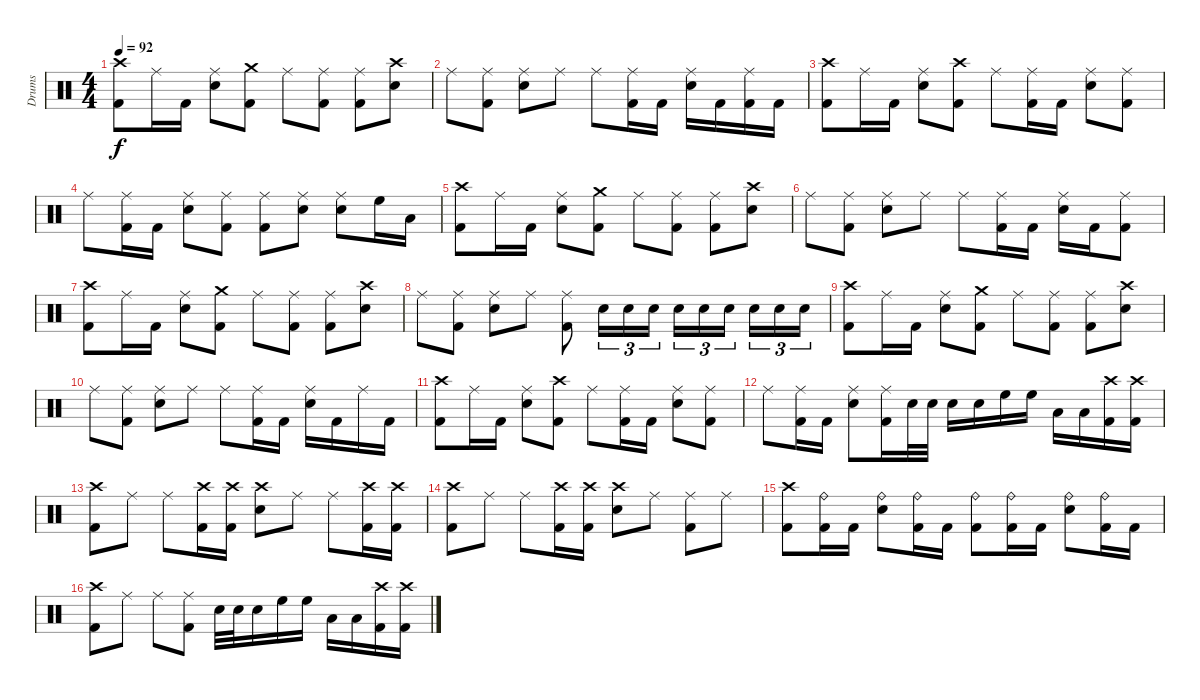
\track ("Drums" "Drums") {instrument percussion}
\staff {score}
\articulation defaults
\ts (4 4)
\tempo 92
\clef neutral
\ks c
("Crash high (hit)" "Kick (hit) 2").8{dy f} "Ride (middle)".16 "Kick (hit) 2".16 ("Ride (middle)" "Snare (hit) 2").8 ("Crash medium (hit)" "Kick (hit) 2").8 "Ride (middle)".8 ("Ride (middle)" "Kick (hit) 2").8 ("Ride (middle)" "Kick (hit) 2").8 ("Crash high (hit)" "Snare (hit) 2").8 |
"Ride (middle)".8 ("Ride (middle)" "Kick (hit) 2").8 ("Ride (middle)" "Snare (hit) 2").8 "Ride (middle)".8 "Ride (middle)".8 ("Ride (middle)" "Kick (hit) 2").16 "Kick (hit) 2".16 ("Ride (middle)" "Snare (hit) 2").16 "Kick (hit) 2".16 ("Ride (middle)" "Kick (hit) 2").16 "Kick (hit) 2".16 |
("Crash high (hit)" "Kick (hit) 2").8 "Ride (middle)".16 "Kick (hit) 2".16 ("Ride (middle)" "Snare (hit) 2").8 ("Crash high (hit)" "Kick (hit) 2").8 "Ride (middle)".8 ("Ride (middle)" "Kick (hit) 2").16 "Kick (hit) 2".16 ("Ride (middle)" "Snare (hit) 2").8 ("Ride (middle)" "Kick (hit) 2").8 |
"Ride (middle)".8 ("Ride (middle)" "Kick (hit) 2").16 "Kick (hit) 2".16 ("Ride (middle)" "Snare (hit) 2").8 ("Ride (middle)" "Kick (hit) 2").8 ("Ride (middle)" "Kick (hit) 2").8 ("Ride (middle)" "Snare (hit) 2").8 ("Ride (middle)" "Snare (hit) 2").8 "High Floor Tom (hit)".16 "Low Tom (hit)".16 |
("Crash high (hit)" "Kick (hit) 2").8 "Ride (middle)".16 "Kick (hit) 2".16 ("Ride (middle)" "Snare (hit) 2").8 ("Crash medium (hit)" "Kick (hit) 2").8 "Ride (middle)".8 ("Ride (middle)" "Kick (hit) 2").8 ("Ride (middle)" "Kick (hit) 2").8 ("Crash high (hit)" "Snare (hit) 2").8 |
"Ride (middle)".8 ("Ride (middle)" "Kick (hit) 2").8 ("Ride (middle)" "Snare (hit) 2").8 "Ride (middle)".8 "Ride (middle)".8 ("Ride (middle)" "Kick (hit) 2").16 "Kick (hit) 2".16 ("Ride (middle)" "Snare (hit) 2").16 "Kick (hit) 2".16 ("Ride (middle)" "Kick (hit) 2").8 |
("Crash high (hit)" "Kick (hit) 2").8 "Ride (middle)".16 "Kick (hit) 2".16 ("Ride (middle)" "Snare (hit) 2").8 ("Crash medium (hit)" "Kick (hit) 2").8 "Ride (middle)".8 ("Ride (middle)" "Kick (hit) 2").8 ("Ride (middle)" "Kick (hit) 2").8 ("Crash high (hit)" "Snare (hit) 2").8 |
"Ride (middle)".8 ("Ride (middle)" "Kick (hit) 2").8 ("Ride (middle)" "Snare (hit) 2").8 "Ride (middle)".8 ("Ride (middle)" "Kick (hit) 2").8 "Snare (hit) 2".16{tu (3 2)} "Snare (hit) 2".16{tu (3 2)} "Snare (hit) 2".16{tu (3 2)} "Snare (hit) 2".16{tu (3 2)} "Snare (hit) 2".16{tu (3 2)} "Snare (hit) 2".16{tu (3 2)} "Snare (hit) 2".16{tu (3 2)} "Snare (hit) 2".16{tu (3 2)} "Snare (hit) 2".16{tu (3 2)} |
("Crash high (hit)" "Kick (hit) 2").8 "Ride (middle)".16 "Kick (hit) 2".16 ("Ride (middle)" "Snare (hit) 2").8 ("Crash medium (hit)" "Kick (hit) 2").8 "Ride (middle)".8 ("Ride (middle)" "Kick (hit) 2").8 ("Ride (middle)" "Kick (hit) 2").8 ("Crash high (hit)" "Snare (hit) 2").8 |
"Ride (middle)".8 ("Ride (middle)" "Kick (hit) 2").8 ("Ride (middle)" "Snare (hit) 2").8 "Ride (middle)".8 "Ride (middle)".8 ("Ride (middle)" "Kick (hit) 2").16 "Kick (hit) 2".16 ("Ride (middle)" "Snare (hit) 2").16 "Kick (hit) 2".16 "Ride (middle)".16 "Kick (hit) 2".16 |
("Crash high (hit)" "Kick (hit) 2").8 "Ride (middle)".16 "Kick (hit) 2".16 ("Ride (middle)" "Snare (hit) 2").8 ("Crash high (hit)" "Kick (hit) 2").8 "Ride (middle)".8 ("Ride (middle)" "Kick (hit) 2").16 "Kick (hit) 2".16 ("Ride (middle)" "Snare (hit) 2").8 ("Ride (middle)" "Kick (hit) 2").8 |
"Ride (middle)".8 ("Ride (middle)" "Kick (hit) 2").16 "Kick (hit) 2".16 ("Ride (middle)" "Snare (hit) 2").8 ("Ride (middle)" "Kick (hit) 2").16 "Snare (hit) 2".32 "Snare (hit) 2".32 "Snare (hit) 2".16 "Snare (hit) 2".16 "High Floor Tom (hit)".16 "High Floor Tom (hit)".16 "Low Tom (hit)".16 "Low Tom (hit)".16 ("Crash high (hit)" "Kick (hit) 2").16 ("Crash high (hit)" "Kick (hit) 2").16 |
("Crash high (hit)" "Kick (hit) 2").8 "Ride (middle)".8 "Ride (middle)".8 ("Crash high (hit)" "Kick (hit) 2").16 ("Crash high (hit)" "Kick (hit) 2").16 ("Crash high (hit)" "Snare (hit) 2").8 "Ride (middle)".8 "Ride (middle)".8 ("Crash high (hit)" "Kick (hit) 2").16 ("Crash high (hit)" "Kick (hit) 2").16 |
("Crash high (hit)" "Kick (hit) 2").8 "Ride (middle)".8 "Ride (middle)".8 ("Crash high (hit)" "Kick (hit) 2").16 ("Crash high (hit)" "Kick (hit) 2").16 ("Crash high (hit)" "Snare (hit) 2").8 "Ride (middle)".8 ("Ride (middle)" "Kick (hit) 2").8 "Ride (middle)".8 |
("Crash high (hit)" "Kick (hit) 2").8 ("Ride (bell)" "Kick (hit) 2").16 "Kick (hit) 2".16 ("Ride (bell)" "Snare (hit) 2").8 ("Ride (bell)" "Kick (hit) 2").16 "Kick (hit) 2".16 ("Ride (bell)" "Kick (hit) 2").8 ("Ride (bell)" "Kick (hit) 2").16 "Kick (hit) 2".16 ("Ride (bell)" "Snare (hit) 2").8 ("Ride (bell)" "Kick (hit) 2").16 "Kick (hit) 2".16 |
("Crash high (hit)" "Kick (hit) 2").8 "Ride (middle)".8 "Ride (middle)".8 ("Ride (middle)" "Kick (hit) 2").8 "Snare (hit) 2".32 "Snare (hit) 2".32 "Snare (hit) 2".16 "High Floor Tom (hit)".16 "High Floor Tom (hit)".16 "Low Tom (hit)".16 "Low Tom (hit)".16 ("Crash high (hit)" "Kick (hit) 2").16 ("Crash high (hit)" "Kick (hit) 2").16
